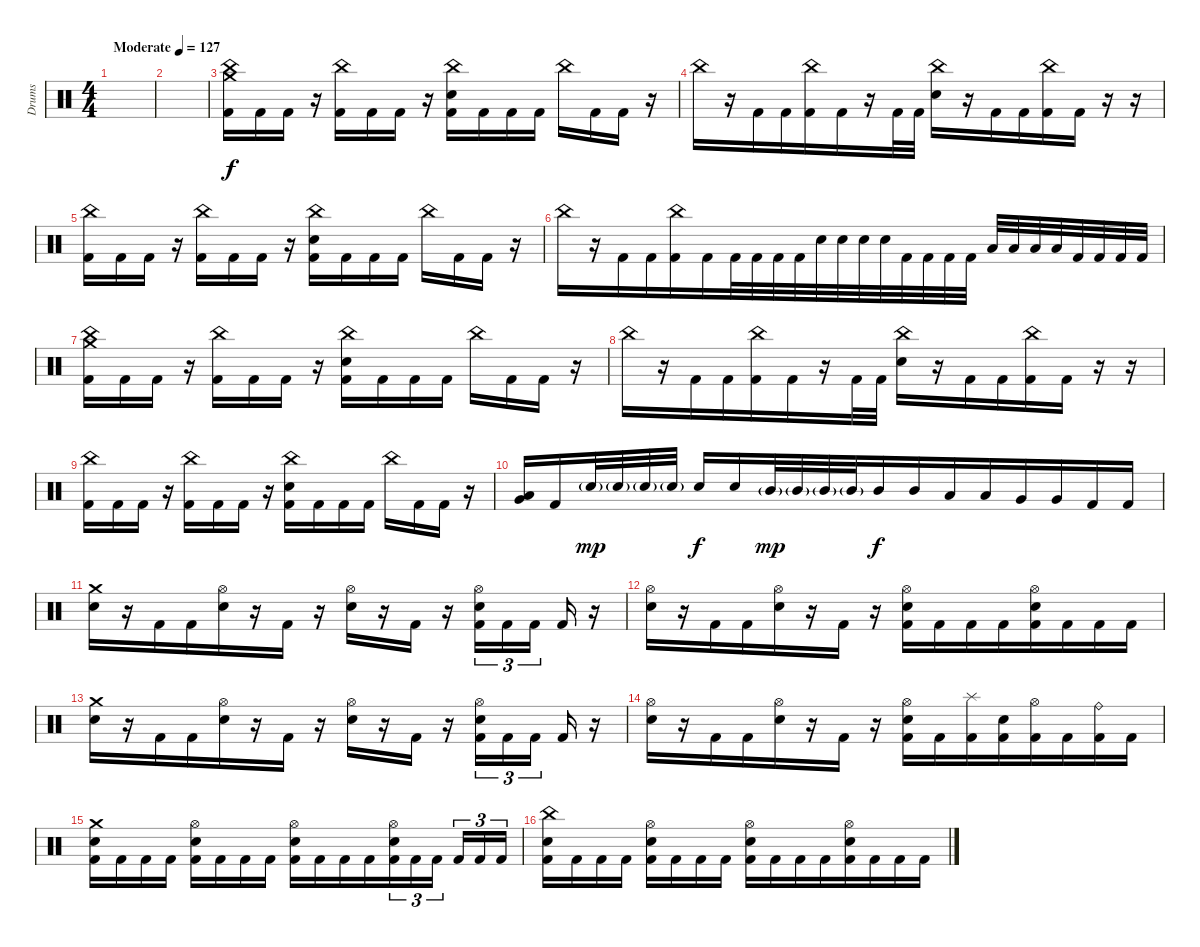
\track ("Drums" "Drums") {instrument percussion}
\staff {score}
\articulation defaults
\ts (4 4)
\tempo (127 "Moderate")
\clef neutral
\ks c
|
|
("Crash medium (hit)" "China (hit)" "Kick (hit) 2").16{beam merge} "Kick (hit) 2".16 "Kick (hit) 2".16 r.16 ("China (hit)" "Kick (hit) 2").16{beam merge} "Kick (hit) 2".16 "Kick (hit) 2".16 r.16{beam merge} ("China (hit)" "Electric Snare (hit)" "Kick (hit) 2").16{beam merge} "Kick (hit) 2".16 "Kick (hit) 2".16 "Kick (hit) 2".16 "China (hit)".16 "Kick (hit) 2".16 "Kick (hit) 2".16{beam merge} r.16 |
"China (hit)".16 r.16 "Kick (hit) 2".16{beam merge} "Kick (hit) 2".16{beam merge} ("China (hit)" "Kick (hit) 2").16 "Kick (hit) 2".16 r.16{beam merge} "Kick (hit) 2".32 "Kick (hit) 2".32 ("China (hit)" "Electric Snare (hit)").16{beam merge} r.16 "Kick (hit) 2".16 "Kick (hit) 2".16{beam merge} ("China (hit)" "Kick (hit) 2").16 "Kick (hit) 2".16 r.16 r.16 |
("China (hit)" "Kick (hit) 2").16{beam merge} "Kick (hit) 2".16 "Kick (hit) 2".16 r.16 ("China (hit)" "Kick (hit) 2").16{beam merge} "Kick (hit) 2".16 "Kick (hit) 2".16 r.16{beam merge} ("China (hit)" "Electric Snare (hit)" "Kick (hit) 2").16{beam merge} "Kick (hit) 2".16 "Kick (hit) 2".16 "Kick (hit) 2".16 "China (hit)".16 "Kick (hit) 2".16 "Kick (hit) 2".16{beam merge} r.16 |
"China (hit)".16 r.16 "Kick (hit) 2".16{beam merge} "Kick (hit) 2".16{beam merge} ("China (hit)" "Kick (hit) 2").16 "Kick (hit) 2".16 "Kick (hit) 2".32{beam merge} "Kick (hit) 2".32{beam merge} "Kick (hit) 2".32 "Kick (hit) 2".32{beam merge} "Electric Snare (hit)".32{beam merge} "Electric Snare (hit)".32 "Electric Snare (hit)".32 "Electric Snare (hit)".32{beam merge} "Kick (hit) 2".32 "Kick (hit) 2".32 "Kick (hit) 2".32 "Kick (hit) 2".32 "Low Tom (hit)".32 "Low Tom (hit)".32{beam merge} "Low Tom (hit)".32 "Low Tom (hit)".32{beam merge} "Kick (hit) 2".32 "Kick (hit) 2".32 "Kick (hit) 2".32 "Kick (hit) 2".32 |
("Crash medium (hit)" "China (hit)" "Kick (hit) 2").16{beam merge} "Kick (hit) 2".16 "Kick (hit) 2".16 r.16 ("China (hit)" "Kick (hit) 2").16{beam merge} "Kick (hit) 2".16 "Kick (hit) 2".16 r.16{beam merge} ("China (hit)" "Electric Snare (hit)" "Kick (hit) 2").16{beam merge} "Kick (hit) 2".16 "Kick (hit) 2".16 "Kick (hit) 2".16 "China (hit)".16 "Kick (hit) 2".16 "Kick (hit) 2".16{beam merge} r.16 |
"China (hit)".16 r.16 "Kick (hit) 2".16{beam merge} "Kick (hit) 2".16{beam merge} ("China (hit)" "Kick (hit) 2").16 "Kick (hit) 2".16 r.16{beam merge} "Kick (hit) 2".32 "Kick (hit) 2".32 ("China (hit)" "Electric Snare (hit)").16{beam merge} r.16 "Kick (hit) 2".16 "Kick (hit) 2".16{beam merge} ("China (hit)" "Kick (hit) 2").16 "Kick (hit) 2".16 r.16 r.16 |
("China (hit)" "Kick (hit) 2").16{beam merge} "Kick (hit) 2".16 "Kick (hit) 2".16 r.16 ("China (hit)" "Kick (hit) 2").16{beam merge} "Kick (hit) 2".16 "Kick (hit) 2".16 r.16{beam merge} ("China (hit)" "Electric Snare (hit)" "Kick (hit) 2").16{beam merge} "Kick (hit) 2".16 "Kick (hit) 2".16 "Kick (hit) 2".16 "China (hit)".16 "Kick (hit) 2".16 "Kick (hit) 2".16{beam merge} r.16 |
("Low Tom (hit)" "Very Low Tom (hit)").16 "Kick (hit) 2".16 "Electric Snare (hit)"{g}.32{dy mp beam merge} "Electric Snare (hit)"{g}.32 "Electric Snare (hit)"{g}.32 "Electric Snare (hit)"{g}.32 "Electric Snare (hit)".16{dy f} "Electric Snare (hit)".16 "Mid Tom (hit)"{g}.32{dy mp beam merge} "Mid Tom (hit)"{g}.32{beam merge} "Mid Tom (hit)"{g}.32 "Mid Tom (hit)"{g}.32{beam merge} "Mid Tom (hit)".16{dy f} "Mid Tom (hit)".16{beam merge} "Low Tom (hit)".16 "Low Tom (hit)".16{beam merge} "Very Low Tom (hit)".16{beam merge} "Very Low Tom (hit)".16{beam merge} "Kick (hit) 2".16 "Kick (hit) 2".16 |
("Crash medium (hit)" "Electric Snare (hit)").16{beam merge} r.16 "Kick (hit) 2".16 "Kick (hit) 2".16{beam merge} ("Hi-Hat (open)" "Electric Snare (hit)").16{beam merge} r.16 "Kick (hit) 2".16 r.16 ("Hi-Hat (open)" "Electric Snare (hit)").16{beam merge} r.16 "Kick (hit) 2".16 r.16{beam merge} ("Hi-Hat (open)" "Electric Snare (hit)" "Kick (hit) 2").16{tu (3 2)} "Kick (hit) 2".16{tu (3 2) beam merge} "Kick (hit) 2".16{tu (3 2) beam splitsecondary} "Kick (hit) 2".16{beam merge} r.16 |
("Hi-Hat (open)" "Electric Snare (hit)").16{beam merge} r.16 "Kick (hit) 2".16 "Kick (hit) 2".16{beam merge} ("Hi-Hat (open)" "Electric Snare (hit)").16{beam merge} r.16 "Kick (hit) 2".16 r.16 ("Hi-Hat (open)" "Electric Snare (hit)" "Kick (hit) 2").16{beam merge} "Kick (hit) 2".16 "Kick (hit) 2".16 "Kick (hit) 2".16{beam merge} ("Hi-Hat (open)" "Electric Snare (hit)" "Kick (hit) 2").16{beam merge} "Kick (hit) 2".16{beam merge} "Kick (hit) 2".16{beam merge} "Kick (hit) 2".16 |
("Crash medium (hit)" "Electric Snare (hit)").16{beam merge} r.16 "Kick (hit) 2".16 "Kick (hit) 2".16{beam merge} ("Hi-Hat (open)" "Electric Snare (hit)").16{beam merge} r.16 "Kick (hit) 2".16 r.16 ("Hi-Hat (open)" "Electric Snare (hit)").16{beam merge} r.16 "Kick (hit) 2".16 r.16{beam merge} ("Hi-Hat (open)" "Electric Snare (hit)" "Kick (hit) 2").16{tu (3 2)} "Kick (hit) 2".16{tu (3 2) beam merge} "Kick (hit) 2".16{tu (3 2) beam splitsecondary} "Kick (hit) 2".16{beam merge} r.16 |
("Hi-Hat (open)" "Electric Snare (hit)").16{beam merge} r.16 "Kick (hit) 2".16 "Kick (hit) 2".16{beam merge} ("Hi-Hat (open)" "Electric Snare (hit)").16{beam merge} r.16 "Kick (hit) 2".16 r.16 ("Hi-Hat (open)" "Electric Snare (hit)" "Kick (hit) 2").16{beam merge} "Kick (hit) 2".16 ("Splash (hit)" "Kick (hit) 2").16 ("Electric Snare (hit)" "Kick (hit) 2").16{beam merge} ("Hi-Hat (open)" "Kick (hit) 2").16{beam merge} "Kick (hit) 2".16{beam merge} ("Ride (bell)" "Kick (hit) 2").16{beam merge} "Kick (hit) 2".16 |
("Crash medium (hit)" "Electric Snare (hit)" "Kick (hit) 2").16{beam merge} "Kick (hit) 2".16{beam merge} "Kick (hit) 2".16 "Kick (hit) 2".16 ("Hi-Hat (open)" "Electric Snare (hit)" "Kick (hit) 2").16 "Kick (hit) 2".16 "Kick (hit) 2".16 "Kick (hit) 2".16 ("Hi-Hat (open)" "Electric Snare (hit)" "Kick (hit) 2").16 "Kick (hit) 2".16 "Kick (hit) 2".16{beam merge} "Kick (hit) 2".16{beam merge} ("Hi-Hat (open)" "Electric Snare (hit)" "Kick (hit) 2").16{tu (3 2)} "Kick (hit) 2".16{tu (3 2)} "Kick (hit) 2".16{tu (3 2) beam splitsecondary} "Kick (hit) 2".16{tu (3 2) beam merge} "Kick (hit) 2".16{tu (3 2) beam merge} "Kick (hit) 2".16{tu (3 2)} |
("China (hit)" "Electric Snare (hit)" "Kick (hit) 2").16{beam merge} "Kick (hit) 2".16{beam merge} "Kick (hit) 2".16 "Kick (hit) 2".16 ("Hi-Hat (open)" "Electric Snare (hit)" "Kick (hit) 2").16 "Kick (hit) 2".16 "Kick (hit) 2".16 "Kick (hit) 2".16 ("Hi-Hat (open)" "Electric Snare (hit)" "Kick (hit) 2").16 "Kick (hit) 2".16 "Kick (hit) 2".16{beam merge} "Kick (hit) 2".16{beam merge} ("Hi-Hat (open)" "Electric Snare (hit)" "Kick (hit) 2").16 "Kick (hit) 2".16{beam merge} "Kick (hit) 2".16{beam merge} "Kick (hit) 2".16
